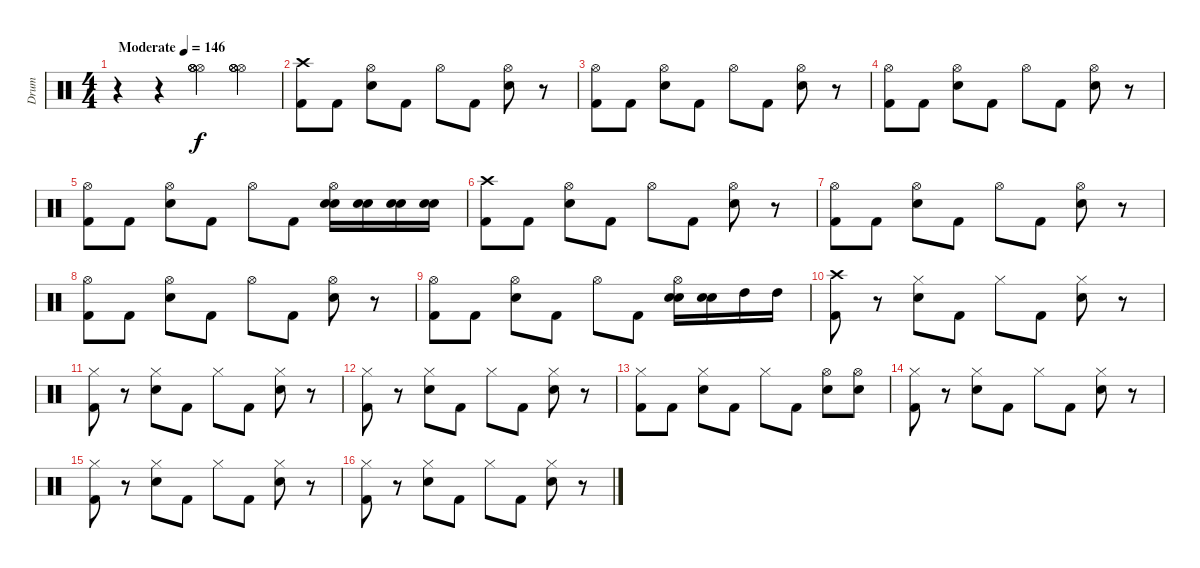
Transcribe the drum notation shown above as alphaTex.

\track ("Drum" "Drum") {instrument percussion}
\staff {score}
\articulation defaults
\ts (4 4)
\tempo (146 "Moderate")
\clef neutral
\ks c
r.4{dy f} r.4 ("Hi-Hat (open)" "Hi-Hat (open)" "Hi-Hat (open)" "Hi-Hat (open)").4 ("Hi-Hat (open)" "Hi-Hat (open)" "Hi-Hat (open)" "Hi-Hat (open)").4 |
("Crash high (hit)" "Kick (hit) 2").8 "Kick (hit) 2".8 ("Hi-Hat (open)" "Electric Snare (hit)").8 "Kick (hit) 2".8 "Hi-Hat (open)".8 "Kick (hit) 2".8 ("Hi-Hat (open)" "Electric Snare (hit)").8 r.8 |
("Hi-Hat (open)" "Kick (hit) 2").8 "Kick (hit) 2".8 ("Hi-Hat (open)" "Electric Snare (hit)").8 "Kick (hit) 2".8 "Hi-Hat (open)".8 "Kick (hit) 2".8 ("Hi-Hat (open)" "Electric Snare (hit)").8 r.8 |
("Hi-Hat (open)" "Kick (hit) 2").8 "Kick (hit) 2".8 ("Hi-Hat (open)" "Electric Snare (hit)").8 "Kick (hit) 2".8 "Hi-Hat (open)".8 "Kick (hit) 2".8 ("Hi-Hat (open)" "Electric Snare (hit)").8 r.8 |
("Hi-Hat (open)" "Kick (hit) 2").8 "Kick (hit) 2".8 ("Hi-Hat (open)" "Electric Snare (hit)").8 "Kick (hit) 2".8 "Hi-Hat (open)".8 "Kick (hit) 2".8 ("Hi-Hat (open)" "Electric Snare (hit)" "Electric Snare (hit)").16 ("Electric Snare (hit)" "Electric Snare (hit)").16 ("Electric Snare (hit)" "Electric Snare (hit)").16 ("Electric Snare (hit)" "Electric Snare (hit)").16 |
("Crash high (hit)" "Kick (hit) 2").8 "Kick (hit) 2".8 ("Hi-Hat (open)" "Electric Snare (hit)").8 "Kick (hit) 2".8 "Hi-Hat (open)".8 "Kick (hit) 2".8 ("Hi-Hat (open)" "Electric Snare (hit)").8 r.8 |
("Hi-Hat (open)" "Kick (hit) 2").8 "Kick (hit) 2".8 ("Hi-Hat (open)" "Electric Snare (hit)").8 "Kick (hit) 2".8 "Hi-Hat (open)".8 "Kick (hit) 2".8 ("Hi-Hat (open)" "Electric Snare (hit)").8 r.8 |
("Hi-Hat (open)" "Kick (hit) 2").8 "Kick (hit) 2".8 ("Hi-Hat (open)" "Electric Snare (hit)").8 "Kick (hit) 2".8 "Hi-Hat (open)".8 "Kick (hit) 2".8 ("Hi-Hat (open)" "Electric Snare (hit)").8 r.8 |
("Hi-Hat (open)" "Kick (hit) 2").8 "Kick (hit) 2".8 ("Hi-Hat (open)" "Electric Snare (hit)").8 "Kick (hit) 2".8 "Hi-Hat (open)".8 "Kick (hit) 2".8 ("Hi-Hat (open)" "Electric Snare (hit)" "Electric Snare (hit)").16 ("Electric Snare (hit)" "Electric Snare (hit)").16 "High Tom (hit)".16 "High Tom (hit)".16 |
("Crash high (hit)" "Kick (hit) 2").8 r.8 ("Hi-Hat (closed)" "Electric Snare (hit)").8 "Kick (hit) 2".8 "Hi-Hat (closed)".8 "Kick (hit) 2".8 ("Hi-Hat (closed)" "Electric Snare (hit)").8 r.8 |
("Hi-Hat (closed)" "Kick (hit) 2").8 r.8 ("Hi-Hat (closed)" "Electric Snare (hit)").8 "Kick (hit) 2".8 "Hi-Hat (closed)".8 "Kick (hit) 2".8 ("Hi-Hat (closed)" "Electric Snare (hit)").8 r.8 |
("Hi-Hat (closed)" "Kick (hit) 2").8 r.8 ("Hi-Hat (closed)" "Electric Snare (hit)").8 "Kick (hit) 2".8 "Hi-Hat (closed)".8 "Kick (hit) 2".8 ("Hi-Hat (closed)" "Electric Snare (hit)").8 r.8 |
("Hi-Hat (closed)" "Kick (hit) 2").8 "Kick (hit) 2".8 ("Hi-Hat (closed)" "Electric Snare (hit)").8 "Kick (hit) 2".8 "Hi-Hat (closed)".8 "Kick (hit) 2".8 ("Hi-Hat (open)" "Electric Snare (hit)").8 ("Hi-Hat (open)" "Electric Snare (hit)").8 |
("Hi-Hat (closed)" "Kick (hit) 2").8 r.8 ("Hi-Hat (closed)" "Electric Snare (hit)").8 "Kick (hit) 2".8 "Hi-Hat (closed)".8 "Kick (hit) 2".8 ("Hi-Hat (closed)" "Electric Snare (hit)").8 r.8 |
("Hi-Hat (closed)" "Kick (hit) 2").8 r.8 ("Hi-Hat (closed)" "Electric Snare (hit)").8 "Kick (hit) 2".8 "Hi-Hat (closed)".8 "Kick (hit) 2".8 ("Hi-Hat (closed)" "Electric Snare (hit)").8 r.8 |
("Hi-Hat (closed)" "Kick (hit) 2").8 r.8 ("Hi-Hat (closed)" "Electric Snare (hit)").8 "Kick (hit) 2".8 "Hi-Hat (closed)".8 "Kick (hit) 2".8 ("Hi-Hat (closed)" "Electric Snare (hit)").8 r.8
